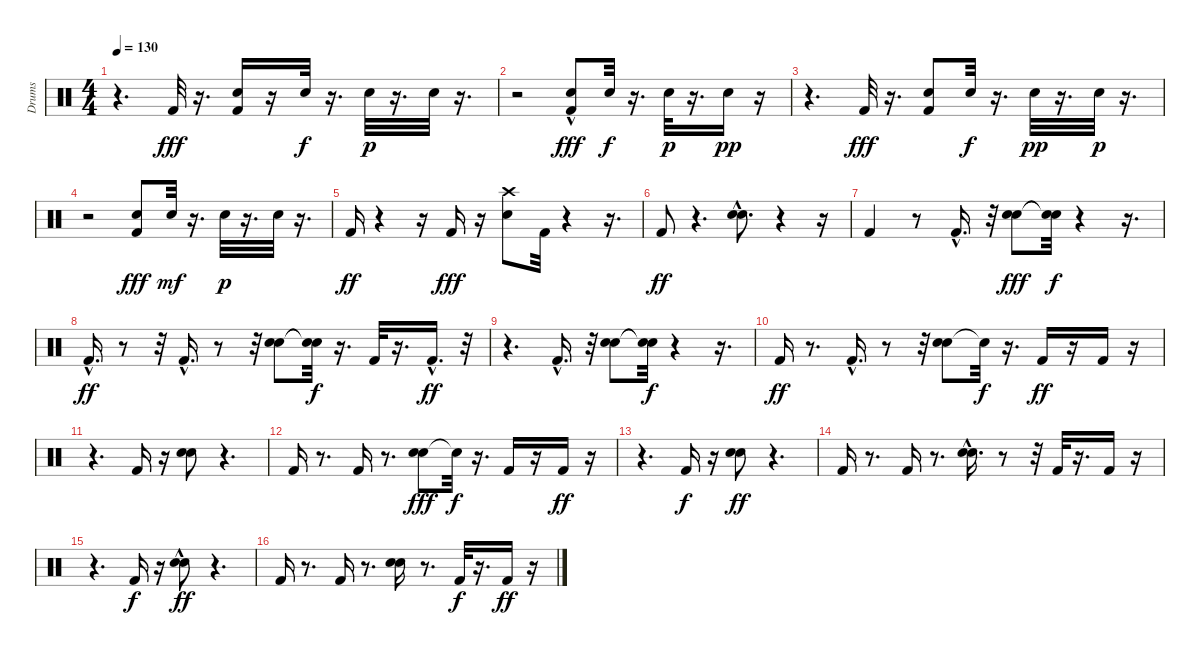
\track ("Drums" "Drums") {instrument percussion}
\staff {score}
\articulation defaults
\ts (4 4)
\tempo 130
\clef neutral
\ks c
r.4{d dy mp} "Kick (hit) 2".32{dy fff} r.16{d} ("Hand Clap (hit)" "Kick (hit) 2").16 r.16 "Hand Clap (hit)".32{dy f} r.16{d} "Hand Clap (hit)".32{dy p} r.16{d} "Hand Clap (hit)".32 r.16{d} |
r.2 ("Hand Clap (hit)" "Kick (hit) 2"{hac}).8{dy fff} "Hand Clap (hit)".32{dy f} r.16{d} "Hand Clap (hit)".32{dy p} r.16{d} "Hand Clap (hit)".16{dy pp} r.16 |
r.4{d} "Kick (hit) 2".32{dy fff} r.16{d} ("Hand Clap (hit)" "Kick (hit) 2").8 "Hand Clap (hit)".32{dy f} r.16{d} "Hand Clap (hit)".32{dy pp} r.16{d} "Hand Clap (hit)".32{dy p} r.16{d} |
r.2 ("Hand Clap (hit)" "Kick (hit) 2").8{dy fff} "Hand Clap (hit)".32{dy mf} r.16{d} "Hand Clap (hit)".32{dy p} r.16{d} "Hand Clap (hit)".32 r.16{d} |
"Kick (hit) 2".16{dy ff} r.4 r.16 "Kick (hit) 2".16{dy fff} r.16 ("Crash high (hit)" "Electric Snare (hit)").8 "Kick (hit) 2".32 r.4 r.16{d} |
"Kick (hit) 2".8{dy ff} r.4{d} ("Hand Clap (hit)"{hac} "Snare (hit) 2"{hac}).8{d} r.4 r.16 |
"Kick (hit) 2".4 r.8 "Kick (hit) 2"{hac}.16{d} r.32 ("Snare (hit) 2" "Hand Clap (hit)").8{dy fff} ("Snare (hit)"{t} "Snare (hit)"{t}).32{dy f} r.4 r.16{d} |
"Kick (hit) 2"{hac}.16{d dy ff} r.8 r.32 "Kick (hit) 2"{hac}.16{d} r.8 r.32 ("Hand Clap (hit)" "Snare (hit) 2").8 ("Snare (hit)"{t} "Snare (hit)"{t}).32{dy f} r.16{d} "Kick (hit) 2".32 r.16{d} "Kick (hit) 2"{hac}.16{d dy ff} r.32 |
r.4{d} "Kick (hit) 2"{hac}.16{d} r.32 ("Hand Clap (hit)" "Snare (hit) 2").8 ("Snare (hit)"{t} "Snare (hit)"{t}).32{dy f} r.4 r.16{d} |
"Kick (hit) 2".16{dy ff} r.8{d} "Kick (hit) 2"{hac}.16{d} r.8 r.32 ("Hand Clap (hit)" "Snare (hit) 2").8 "Snare (hit)"{t}.32{dy f} r.16{d} "Kick (hit) 2".16{dy ff} r.16 "Kick (hit) 2".16 r.16 |
r.4{d} "Kick (hit) 2".16 r.16 ("Hand Clap (hit)" "Snare (hit) 2").8 r.4{d} |
"Kick (hit) 2".16 r.8{d} "Kick (hit) 2".16 r.8{d} ("Snare (hit) 2" "Hand Clap (hit)").8{dy fff} "Snare (hit)"{t}.32{dy f} r.16{d} "Kick (hit) 2".16 r.16 "Kick (hit) 2".16{dy ff} r.16 |
r.4{d} "Kick (hit) 2".16{dy f} r.16 ("Hand Clap (hit)" "Snare (hit) 2").8{dy ff} r.4{d} |
"Kick (hit) 2".16 r.8{d} "Kick (hit) 2".16 r.8{d} ("Hand Clap (hit)"{hac} "Snare (hit) 2"{hac}).16{d} r.8 r.32 "Kick (hit) 2".32 r.16{d} "Kick (hit) 2".16 r.16 |
r.4{d} "Kick (hit) 2".16{dy f} r.16 ("Hand Clap (hit)"{hac} "Snare (hit) 2").8{dy ff} r.4{d} |
"Kick (hit) 2".16 r.8{d} "Kick (hit) 2".16 r.8{d} ("Hand Clap (hit)" "Snare (hit) 2").16 r.8{d} "Kick (hit) 2".32{dy f} r.16{d} "Kick (hit) 2".16{dy ff} r.16
